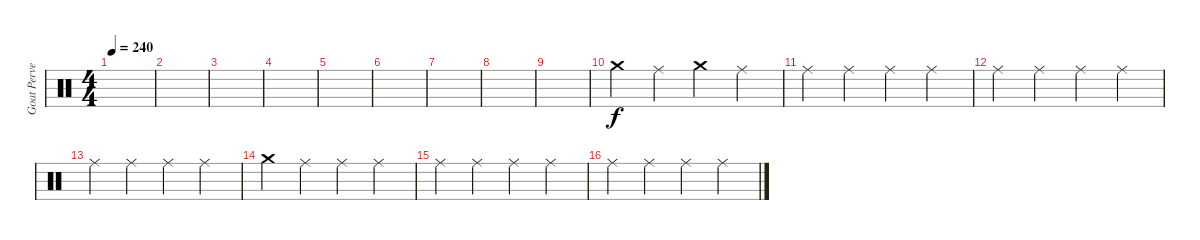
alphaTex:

\track ("Goat Pervertor2" "Goat Perve") {instrument percussion}
\staff {score}
\articulation defaults
\ts (4 4)
\tempo 240
\clef neutral
\ks c
|
|
|
|
|
|
|
|
|
"Crash medium (hit)".4 "Ride (middle)".4 "Crash medium (hit)".4 "Ride (middle)".4 |
"Ride (middle)".4 "Ride (middle)".4 "Ride (middle)".4 "Ride (middle)".4 |
"Ride (middle)".4 "Ride (middle)".4 "Ride (middle)".4 "Ride (middle)".4 |
"Ride (middle)".4 "Ride (middle)".4 "Ride (middle)".4 "Ride (middle)".4 |
"Crash medium (hit)".4 "Ride (middle)".4 "Ride (middle)".4 "Ride (middle)".4 |
"Ride (middle)".4 "Ride (middle)".4 "Ride (middle)".4 "Ride (middle)".4 |
"Ride (middle)".4 "Ride (middle)".4 "Ride (middle)".4 "Ride (middle)".4
